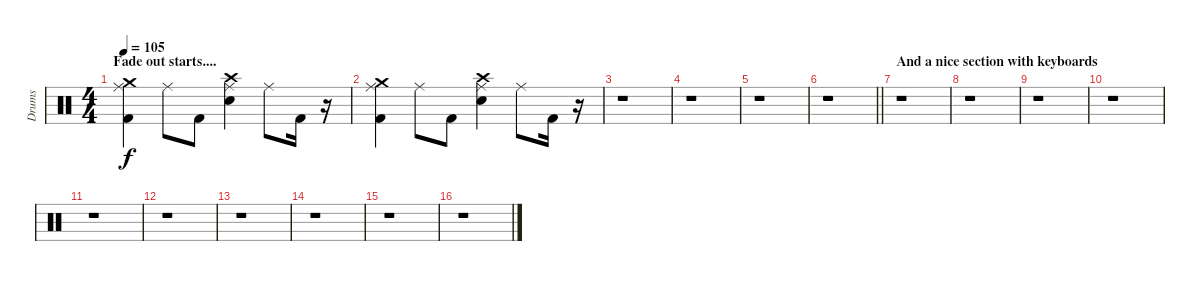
\track ("Drums" "Drums") {instrument percussion}
\staff {score}
\articulation defaults
\ts (4 4)
\section ("" "Fade out starts....")
\tempo 105
\clef neutral
\ks c
("Ride (middle)" "Crash medium (hit)" "Kick (hit) 2").4{dy f} "Ride (middle)".8 "Kick (hit) 2".8 ("Ride (middle)" "Crash high (hit)" "Electric Snare (hit)").4 "Ride (middle)".8 "Kick (hit) 2".16 r.16 |
("Ride (middle)" "Crash medium (hit)" "Kick (hit) 2").4 "Ride (middle)".8 "Kick (hit) 2".8 ("Ride (middle)" "Crash high (hit)" "Electric Snare (hit)").4 "Ride (middle)".8 "Kick (hit) 2".16 r.16 |
r.1 |
r.1 |
r.1 |
\barLineRight lightlight
r.1 |
\section ("" "And a nice section with keyboards")
r.1 |
r.1 |
r.1 |
r.1 |
r.1 |
r.1 |
r.1 |
r.1 |
r.1 |
r.1
